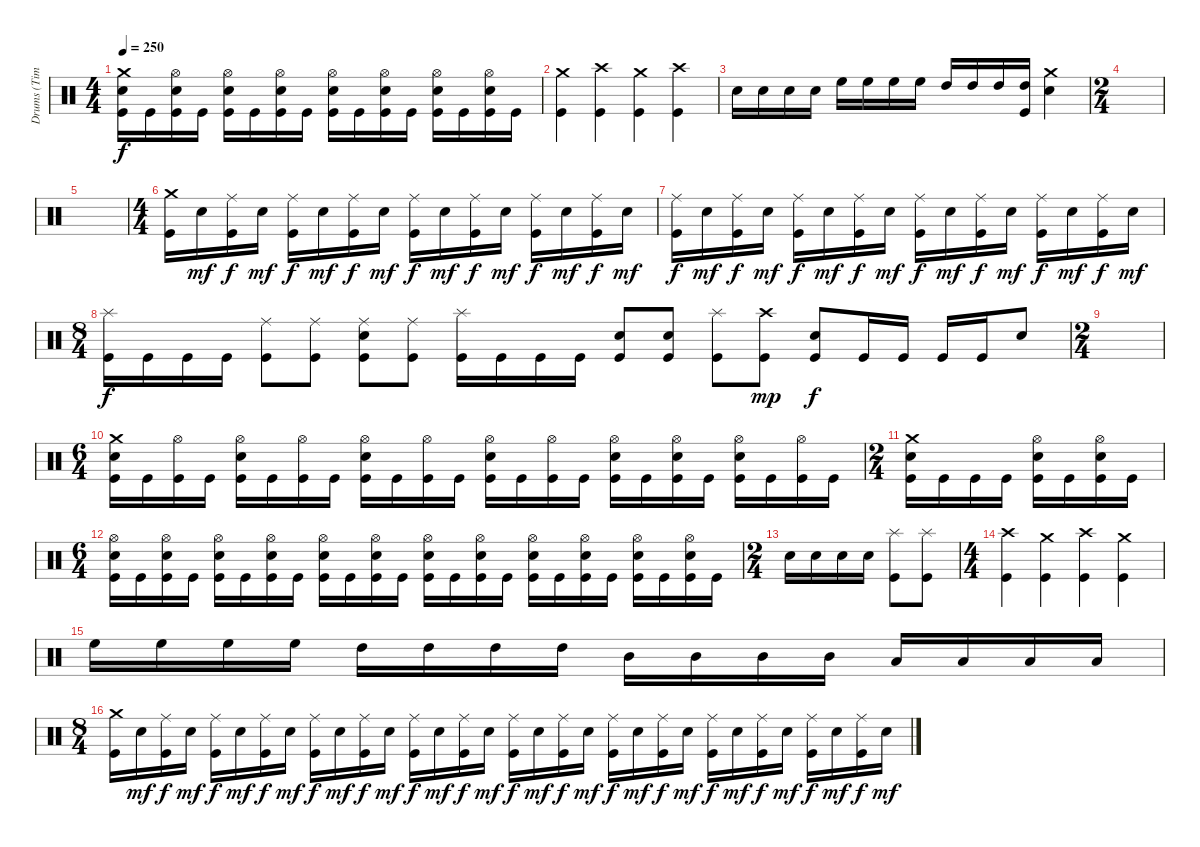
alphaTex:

\track ("Drums (Tim Yeung)" "Drums (Tim") {instrument percussion}
\staff {score}
\articulation defaults
\ts (4 4)
\tempo 250
\clef neutral
\ks c
("Crash medium (hit)" "Electric Snare (hit)" "Kick (hit)").16{dy f} "Kick (hit)".16 ("Hi-Hat (open)" "Electric Snare (hit)" "Kick (hit)").16 "Kick (hit)".16 ("Hi-Hat (open)" "Electric Snare (hit)" "Kick (hit)").16 "Kick (hit)".16 ("Hi-Hat (open)" "Electric Snare (hit)" "Kick (hit)").16 "Kick (hit)".16 ("Hi-Hat (open)" "Electric Snare (hit)" "Kick (hit)").16 "Kick (hit)".16 ("Hi-Hat (open)" "Electric Snare (hit)" "Kick (hit)").16 "Kick (hit)".16 ("Hi-Hat (open)" "Electric Snare (hit)" "Kick (hit)").16 "Kick (hit)".16 ("Hi-Hat (open)" "Electric Snare (hit)" "Kick (hit)").16 "Kick (hit)".16 |
("Crash medium (hit)" "Kick (hit)").4 ("Crash high (hit)" "Kick (hit)").4 ("Crash medium (hit)" "Kick (hit)").4 ("Crash high (hit)" "Kick (hit)").4 |
"Electric Snare (hit)".16 "Electric Snare (hit)".16 "Electric Snare (hit)".16 "Electric Snare (hit)".16 "High Floor Tom (hit)".16 "High Floor Tom (hit)".16 "High Floor Tom (hit)".16 "High Floor Tom (hit)".16 "High Tom (hit)".16 "High Tom (hit)".16 "High Tom (hit)".16 ("High Tom (hit)" "Kick (hit)").16 ("Crash medium (hit)" "Electric Snare (hit)").4 |
\ts (2 4)
|
|
\ts (4 4)
("Crash medium (hit)" "Kick (hit)").16 "Electric Snare (hit)".16{dy mf} ("Ride (middle)" "Kick (hit)").16{dy f} "Electric Snare (hit)".16{dy mf} ("Ride (middle)" "Kick (hit)").16{dy f} "Electric Snare (hit)".16{dy mf} ("Ride (middle)" "Kick (hit)").16{dy f} "Electric Snare (hit)".16{dy mf} ("Ride (middle)" "Kick (hit)").16{dy f} "Electric Snare (hit)".16{dy mf} ("Ride (middle)" "Kick (hit)").16{dy f} "Electric Snare (hit)".16{dy mf} ("Ride (middle)" "Kick (hit)").16{dy f} "Electric Snare (hit)".16{dy mf} ("Ride (middle)" "Kick (hit)").16{dy f} "Electric Snare (hit)".16{dy mf} |
("Ride (middle)" "Kick (hit)").16{dy f} "Electric Snare (hit)".16{dy mf} ("Ride (middle)" "Kick (hit)").16{dy f} "Electric Snare (hit)".16{dy mf} ("Ride (middle)" "Kick (hit)").16{dy f} "Electric Snare (hit)".16{dy mf} ("Ride (middle)" "Kick (hit)").16{dy f} "Electric Snare (hit)".16{dy mf} ("Ride (middle)" "Kick (hit)").16{dy f} "Electric Snare (hit)".16{dy mf} ("Ride (middle)" "Kick (hit)").16{dy f} "Electric Snare (hit)".16{dy mf} ("Ride (middle)" "Kick (hit)").16{dy f} "Electric Snare (hit)".16{dy mf} ("Ride (middle)" "Kick (hit)").16{dy f} "Electric Snare (hit)".16{dy mf} |
\ts (8 4)
("Splash (hit)" "Kick (hit)").16{dy f} "Kick (hit)".16 "Kick (hit)".16 "Kick (hit)".16 ("Ride (middle)" "Kick (hit)").8 ("Ride (middle)" "Kick (hit)").8 ("Ride (middle)" "Electric Snare (hit)" "Kick (hit)").8 ("Ride (middle)" "Kick (hit)").8 ("Splash (hit)" "Kick (hit)").16 "Kick (hit)".16 "Kick (hit)".16 "Kick (hit)".16 ("Electric Snare (hit)" "Kick (hit)").8 ("Electric Snare (hit)" "Kick (hit)").8 ("Splash (hit)" "Kick (hit)").8 ("Crash high (hit)" "Kick (hit)").8{dy mp} ("Electric Snare (hit)" "Kick (hit)").8{dy f} "Kick (hit)".16 "Kick (hit)".16 "Kick (hit)".16 "Kick (hit)".16 "Electric Snare (hit)".8 |
\ts (2 4)
|
\ts (6 4)
("Crash medium (hit)" "Electric Snare (hit)" "Kick (hit)").16 "Kick (hit)".16 ("Hi-Hat (open)" "Kick (hit)").16 "Kick (hit)".16 ("Hi-Hat (open)" "Electric Snare (hit)" "Kick (hit)").16 "Kick (hit)".16 ("Hi-Hat (open)" "Kick (hit)").16 "Kick (hit)".16 ("Hi-Hat (open)" "Electric Snare (hit)" "Kick (hit)").16 "Kick (hit)".16 ("Hi-Hat (open)" "Kick (hit)").16 "Kick (hit)".16 ("Hi-Hat (open)" "Electric Snare (hit)" "Kick (hit)").16 "Kick (hit)".16 ("Hi-Hat (open)" "Kick (hit)").16 "Kick (hit)".16 ("Hi-Hat (open)" "Electric Snare (hit)" "Kick (hit)").16 "Kick (hit)".16 ("Hi-Hat (open)" "Electric Snare (hit)" "Kick (hit)").16 "Kick (hit)".16 ("Hi-Hat (open)" "Electric Snare (hit)" "Kick (hit)").16 "Kick (hit)".16 ("Hi-Hat (open)" "Kick (hit)").16 "Kick (hit)".16 |
\ts (2 4)
("Crash medium (hit)" "Electric Snare (hit)" "Kick (hit)").16 "Kick (hit)".16 "Kick (hit)".16 "Kick (hit)".16 ("Hi-Hat (open)" "Electric Snare (hit)" "Kick (hit)").16 "Kick (hit)".16 ("Hi-Hat (open)" "Electric Snare (hit)" "Kick (hit)").16 "Kick (hit)".16 |
\ts (6 4)
("Hi-Hat (open)" "Electric Snare (hit)" "Kick (hit)").16 "Kick (hit)".16 ("Hi-Hat (open)" "Electric Snare (hit)" "Kick (hit)").16 "Kick (hit)".16 ("Hi-Hat (open)" "Electric Snare (hit)" "Kick (hit)").16 "Kick (hit)".16 ("Hi-Hat (open)" "Electric Snare (hit)" "Kick (hit)").16 "Kick (hit)".16 ("Hi-Hat (open)" "Electric Snare (hit)" "Kick (hit)").16 "Kick (hit)".16 ("Hi-Hat (open)" "Electric Snare (hit)" "Kick (hit)").16 "Kick (hit)".16 ("Hi-Hat (open)" "Electric Snare (hit)" "Kick (hit)").16 "Kick (hit)".16 ("Hi-Hat (open)" "Electric Snare (hit)" "Kick (hit)").16 "Kick (hit)".16 ("Hi-Hat (open)" "Electric Snare (hit)" "Kick (hit)").16 "Kick (hit)".16 ("Hi-Hat (open)" "Electric Snare (hit)" "Kick (hit)").16 "Kick (hit)".16 ("Hi-Hat (open)" "Electric Snare (hit)" "Kick (hit)").16 "Kick (hit)".16 ("Hi-Hat (open)" "Electric Snare (hit)" "Kick (hit)").16 "Kick (hit)".16 |
\ts (2 4)
"Electric Snare (hit)".16 "Electric Snare (hit)".16 "Electric Snare (hit)".16 "Electric Snare (hit)".16 ("Splash (hit)" "Kick (hit)").8 ("Splash (hit)" "Kick (hit)").8 |
\ts (4 4)
("Crash high (hit)" "Kick (hit)").4 ("Crash medium (hit)" "Kick (hit)").4 ("Crash high (hit)" "Kick (hit)").4 ("Crash medium (hit)" "Kick (hit)").4 |
"High Floor Tom (hit)".16 "High Floor Tom (hit)".16 "High Floor Tom (hit)".16 "High Floor Tom (hit)".16 "High Tom (hit)".16 "High Tom (hit)".16 "High Tom (hit)".16 "High Tom (hit)".16 "Mid Tom (hit)".16 "Mid Tom (hit)".16 "Mid Tom (hit)".16 "Mid Tom (hit)".16 "Low Tom (hit)".16 "Low Tom (hit)".16 "Low Tom (hit)".16 "Low Tom (hit)".16 |
\ts (8 4)
("Crash medium (hit)" "Kick (hit)").16 "Electric Snare (hit)".16{dy mf} ("Ride (middle)" "Kick (hit)").16{dy f} "Electric Snare (hit)".16{dy mf} ("Ride (middle)" "Kick (hit)").16{dy f} "Electric Snare (hit)".16{dy mf} ("Ride (middle)" "Kick (hit)").16{dy f} "Electric Snare (hit)".16{dy mf} ("Ride (middle)" "Kick (hit)").16{dy f} "Electric Snare (hit)".16{dy mf} ("Ride (middle)" "Kick (hit)").16{dy f} "Electric Snare (hit)".16{dy mf} ("Ride (middle)" "Kick (hit)").16{dy f} "Electric Snare (hit)".16{dy mf} ("Ride (middle)" "Kick (hit)").16{dy f} "Electric Snare (hit)".16{dy mf} ("Ride (middle)" "Kick (hit)").16{dy f} "Electric Snare (hit)".16{dy mf} ("Ride (middle)" "Kick (hit)").16{dy f} "Electric Snare (hit)".16{dy mf} ("Ride (middle)" "Kick (hit)").16{dy f} "Electric Snare (hit)".16{dy mf} ("Ride (middle)" "Kick (hit)").16{dy f} "Electric Snare (hit)".16{dy mf} ("Ride (middle)" "Kick (hit)").16{dy f} "Electric Snare (hit)".16{dy mf} ("Ride (middle)" "Kick (hit)").16{dy f} "Electric Snare (hit)".16{dy mf} ("Ride (middle)" "Kick (hit)").16{dy f} "Electric Snare (hit)".16{dy mf} ("Ride (middle)" "Kick (hit)").16{dy f} "Electric Snare (hit)".16{dy mf}
